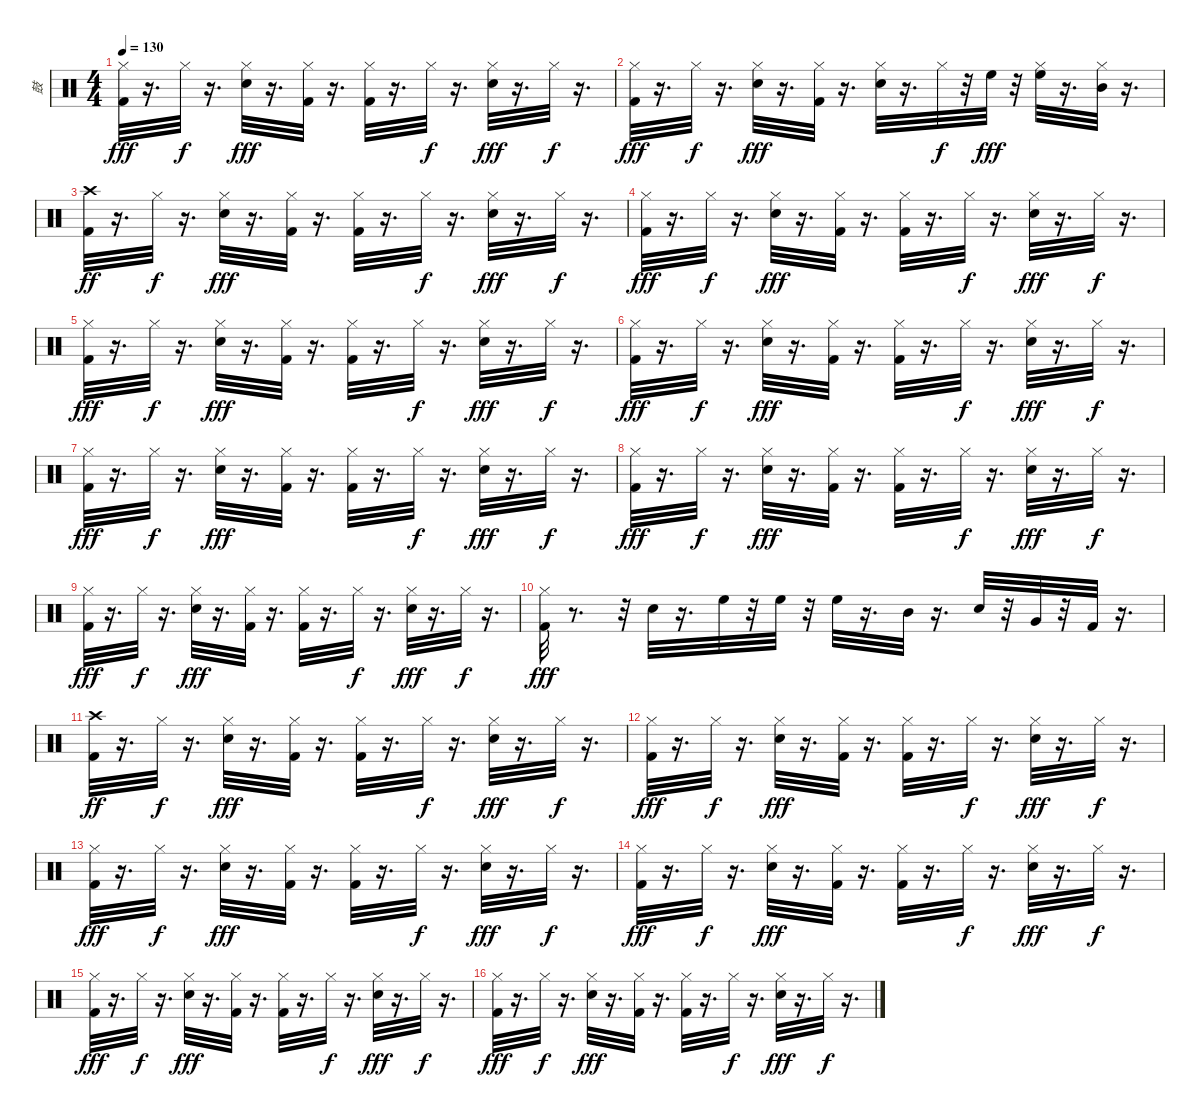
\track ("鼓" "鼓") {instrument percussion}
\staff {score}
\articulation defaults
\ts (4 4)
\tempo 130
\clef neutral
\ks c
("Kick (hit) 2" "Hi-Hat (closed)").32{dy fff} r.16{d} "Hi-Hat (closed)".32{dy f} r.16{d} ("Hi-Hat (closed)" "Electric Snare (hit)").32{dy fff} r.16{d} ("Kick (hit) 2" "Hi-Hat (closed)").32 r.16{d} ("Kick (hit) 2" "Hi-Hat (closed)").32 r.16{d} "Hi-Hat (closed)".32{dy f} r.16{d} ("Hi-Hat (closed)" "Electric Snare (hit)").32{dy fff} r.16{d} "Hi-Hat (closed)".32{dy f} r.16{d} |
("Kick (hit) 2" "Hi-Hat (closed)").32{dy fff} r.16{d} "Hi-Hat (closed)".32{dy f} r.16{d} ("Electric Snare (hit)" "Hi-Hat (closed)").32{dy fff} r.16{d} ("Kick (hit) 2" "Hi-Hat (closed)").32 r.16{d} ("Electric Snare (hit)" "Hi-Hat (closed)").32 r.16{d} "Hi-Hat (closed)".32{dy f} r.32 "High Floor Tom (hit)".32{dy fff} r.32 ("High Floor Tom (hit)" "Hi-Hat (closed)").32 r.16{d} ("Mid Tom (hit)" "Hi-Hat (closed)").32 r.16{d} |
("Kick (hit) 2" "Crash high (hit)").32{dy ff} r.16{d} "Hi-Hat (closed)".32{dy f} r.16{d} ("Hi-Hat (closed)" "Electric Snare (hit)").32{dy fff} r.16{d} ("Kick (hit) 2" "Hi-Hat (closed)").32 r.16{d} ("Kick (hit) 2" "Hi-Hat (closed)").32 r.16{d} "Hi-Hat (closed)".32{dy f} r.16{d} ("Hi-Hat (closed)" "Electric Snare (hit)").32{dy fff} r.16{d} "Hi-Hat (closed)".32{dy f} r.16{d} |
("Hi-Hat (closed)" "Kick (hit) 2").32{dy fff} r.16{d} "Hi-Hat (closed)".32{dy f} r.16{d} ("Hi-Hat (closed)" "Electric Snare (hit)").32{dy fff} r.16{d} ("Kick (hit) 2" "Hi-Hat (closed)").32 r.16{d} ("Kick (hit) 2" "Hi-Hat (closed)").32 r.16{d} "Hi-Hat (closed)".32{dy f} r.16{d} ("Hi-Hat (closed)" "Electric Snare (hit)").32{dy fff} r.16{d} "Hi-Hat (closed)".32{dy f} r.16{d} |
("Kick (hit) 2" "Hi-Hat (closed)").32{dy fff} r.16{d} "Hi-Hat (closed)".32{dy f} r.16{d} ("Hi-Hat (closed)" "Electric Snare (hit)").32{dy fff} r.16{d} ("Kick (hit) 2" "Hi-Hat (closed)").32 r.16{d} ("Kick (hit) 2" "Hi-Hat (closed)").32 r.16{d} "Hi-Hat (closed)".32{dy f} r.16{d} ("Hi-Hat (closed)" "Electric Snare (hit)").32{dy fff} r.16{d} "Hi-Hat (closed)".32{dy f} r.16{d} |
("Kick (hit) 2" "Hi-Hat (closed)").32{dy fff} r.16{d} "Hi-Hat (closed)".32{dy f} r.16{d} ("Hi-Hat (closed)" "Electric Snare (hit)").32{dy fff} r.16{d} ("Kick (hit) 2" "Hi-Hat (closed)").32 r.16{d} ("Kick (hit) 2" "Hi-Hat (closed)").32 r.16{d} "Hi-Hat (closed)".32{dy f} r.16{d} ("Hi-Hat (closed)" "Electric Snare (hit)").32{dy fff} r.16{d} "Hi-Hat (closed)".32{dy f} r.16{d} |
("Kick (hit) 2" "Hi-Hat (closed)").32{dy fff} r.16{d} "Hi-Hat (closed)".32{dy f} r.16{d} ("Hi-Hat (closed)" "Electric Snare (hit)").32{dy fff} r.16{d} ("Kick (hit) 2" "Hi-Hat (closed)").32 r.16{d} ("Kick (hit) 2" "Hi-Hat (closed)").32 r.16{d} "Hi-Hat (closed)".32{dy f} r.16{d} ("Hi-Hat (closed)" "Electric Snare (hit)").32{dy fff} r.16{d} "Hi-Hat (closed)".32{dy f} r.16{d} |
("Kick (hit) 2" "Hi-Hat (closed)").32{dy fff} r.16{d} "Hi-Hat (closed)".32{dy f} r.16{d} ("Hi-Hat (closed)" "Electric Snare (hit)").32{dy fff} r.16{d} ("Kick (hit) 2" "Hi-Hat (closed)").32 r.16{d} ("Kick (hit) 2" "Hi-Hat (closed)").32 r.16{d} "Hi-Hat (closed)".32{dy f} r.16{d} ("Hi-Hat (closed)" "Electric Snare (hit)").32{dy fff} r.16{d} "Hi-Hat (closed)".32{dy f} r.16{d} |
("Kick (hit) 2" "Hi-Hat (closed)").32{dy fff} r.16{d} "Hi-Hat (closed)".32{dy f} r.16{d} ("Hi-Hat (closed)" "Electric Snare (hit)").32{dy fff} r.16{d} ("Kick (hit) 2" "Hi-Hat (closed)").32 r.16{d} ("Kick (hit) 2" "Hi-Hat (closed)").32 r.16{d} "Hi-Hat (closed)".32{dy f} r.16{d} ("Hi-Hat (closed)" "Electric Snare (hit)").32{dy fff} r.16{d} "Hi-Hat (closed)".32{dy f} r.16{d} |
("Kick (hit) 2" "Hi-Hat (closed)").32{dy fff} r.8{d} r.32 "Electric Snare (hit)".32 r.16{d} "High Floor Tom (hit)".32 r.32 "High Floor Tom (hit)".32 r.32 "High Floor Tom (hit)".32 r.16{d} "Mid Tom (hit)".32 r.16{d} "Electric Snare (hit)".32 r.32 "Very Low Tom (hit)".32 r.32 "Kick (hit) 2".32 r.16{d} |
("Kick (hit) 2" "Crash high (hit)").32{dy ff} r.16{d} "Hi-Hat (closed)".32{dy f} r.16{d} ("Hi-Hat (closed)" "Electric Snare (hit)").32{dy fff} r.16{d} ("Kick (hit) 2" "Hi-Hat (closed)").32 r.16{d} ("Kick (hit) 2" "Hi-Hat (closed)").32 r.16{d} "Hi-Hat (closed)".32{dy f} r.16{d} ("Hi-Hat (closed)" "Electric Snare (hit)").32{dy fff} r.16{d} "Hi-Hat (closed)".32{dy f} r.16{d} |
("Kick (hit) 2" "Hi-Hat (closed)").32{dy fff} r.16{d} "Hi-Hat (closed)".32{dy f} r.16{d} ("Hi-Hat (closed)" "Electric Snare (hit)").32{dy fff} r.16{d} ("Kick (hit) 2" "Hi-Hat (closed)").32 r.16{d} ("Kick (hit) 2" "Hi-Hat (closed)").32 r.16{d} "Hi-Hat (closed)".32{dy f} r.16{d} ("Hi-Hat (closed)" "Electric Snare (hit)").32{dy fff} r.16{d} "Hi-Hat (closed)".32{dy f} r.16{d} |
("Kick (hit) 2" "Hi-Hat (closed)").32{dy fff} r.16{d} "Hi-Hat (closed)".32{dy f} r.16{d} ("Hi-Hat (closed)" "Electric Snare (hit)").32{dy fff} r.16{d} ("Kick (hit) 2" "Hi-Hat (closed)").32 r.16{d} ("Kick (hit) 2" "Hi-Hat (closed)").32 r.16{d} "Hi-Hat (closed)".32{dy f} r.16{d} ("Hi-Hat (closed)" "Electric Snare (hit)").32{dy fff} r.16{d} "Hi-Hat (closed)".32{dy f} r.16{d} |
("Hi-Hat (closed)" "Kick (hit) 2").32{dy fff} r.16{d} "Hi-Hat (closed)".32{dy f} r.16{d} ("Hi-Hat (closed)" "Electric Snare (hit)").32{dy fff} r.16{d} ("Kick (hit) 2" "Hi-Hat (closed)").32 r.16{d} ("Kick (hit) 2" "Hi-Hat (closed)").32 r.16{d} "Hi-Hat (closed)".32{dy f} r.16{d} ("Hi-Hat (closed)" "Electric Snare (hit)").32{dy fff} r.16{d} "Hi-Hat (closed)".32{dy f} r.16{d} |
("Kick (hit) 2" "Hi-Hat (closed)").32{dy fff} r.16{d} "Hi-Hat (closed)".32{dy f} r.16{d} ("Hi-Hat (closed)" "Electric Snare (hit)").32{dy fff} r.16{d} ("Kick (hit) 2" "Hi-Hat (closed)").32 r.16{d} ("Kick (hit) 2" "Hi-Hat (closed)").32 r.16{d} "Hi-Hat (closed)".32{dy f} r.16{d} ("Hi-Hat (closed)" "Electric Snare (hit)").32{dy fff} r.16{d} "Hi-Hat (closed)".32{dy f} r.16{d} |
("Kick (hit) 2" "Hi-Hat (closed)").32{dy fff} r.16{d} "Hi-Hat (closed)".32{dy f} r.16{d} ("Hi-Hat (closed)" "Electric Snare (hit)").32{dy fff} r.16{d} ("Kick (hit) 2" "Hi-Hat (closed)").32 r.16{d} ("Kick (hit) 2" "Hi-Hat (closed)").32 r.16{d} "Hi-Hat (closed)".32{dy f} r.16{d} ("Hi-Hat (closed)" "Electric Snare (hit)").32{dy fff} r.16{d} "Hi-Hat (closed)".32{dy f} r.16{d}
